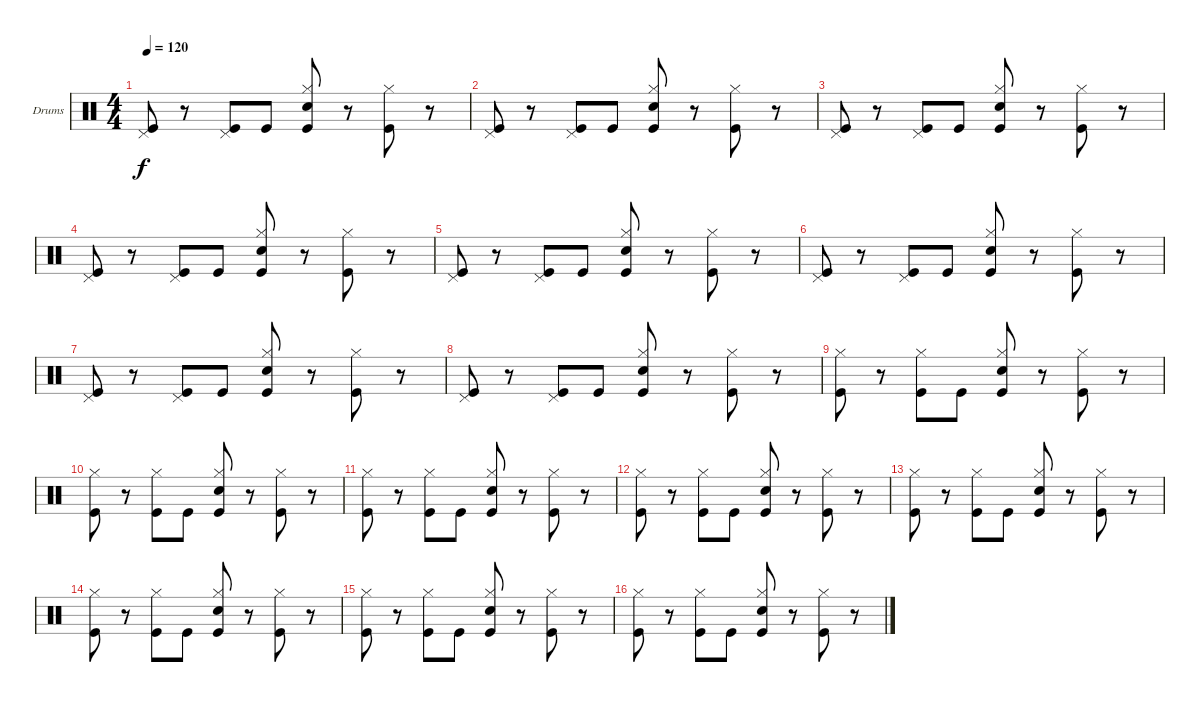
\defaultSystemsLayout 4
\bracketExtendMode groupsimilarinstruments
\firstSystemTrackNameOrientation horizontal
\otherSystemsTrackNameOrientation horizontal
\track ("Drumkit" "Drums") {instrument percussion}
\staff {score}
\articulation defaults
\ts (4 4)
\tempo 120
\clef neutral
\scale
0.333333
\ks c
("Pedal Hi-Hat (hit)" "Kick (hit)").8{dy f} r.8 ("Pedal Hi-Hat (hit)" "Kick (hit)").8 "Kick (hit)".8 ("Hi-Hat (closed)" "Kick (hit)" "Snare (hit) 2").8 r.8 ("Hi-Hat (closed)" "Kick (hit)").8 r.8 |
\scale
0.333333 ("Pedal Hi-Hat (hit)" "Kick (hit)").8 r.8 ("Pedal Hi-Hat (hit)" "Kick (hit)").8 "Kick (hit)".8 ("Hi-Hat (closed)" "Kick (hit)" "Snare (hit) 2").8 r.8 ("Hi-Hat (closed)" "Kick (hit)").8 r.8 |
\scale
0.333333 ("Pedal Hi-Hat (hit)" "Kick (hit)").8 r.8 ("Pedal Hi-Hat (hit)" "Kick (hit)").8 "Kick (hit)".8 ("Hi-Hat (closed)" "Kick (hit)" "Snare (hit) 2").8 r.8 ("Hi-Hat (closed)" "Kick (hit)").8 r.8 |
\scale
0.333333 ("Pedal Hi-Hat (hit)" "Kick (hit)").8 r.8 ("Pedal Hi-Hat (hit)" "Kick (hit)").8 "Kick (hit)".8 ("Hi-Hat (closed)" "Kick (hit)" "Snare (hit) 2").8 r.8 ("Hi-Hat (closed)" "Kick (hit)").8 r.8 |
\scale
0.333333 ("Pedal Hi-Hat (hit)" "Kick (hit)").8 r.8 ("Pedal Hi-Hat (hit)" "Kick (hit)").8 "Kick (hit)".8 ("Hi-Hat (closed)" "Kick (hit)" "Snare (hit) 2").8 r.8 ("Hi-Hat (closed)" "Kick (hit)").8 r.8 |
\scale
0.333333 ("Pedal Hi-Hat (hit)" "Kick (hit)").8 r.8 ("Pedal Hi-Hat (hit)" "Kick (hit)").8 "Kick (hit)".8 ("Hi-Hat (closed)" "Kick (hit)" "Snare (hit) 2").8 r.8 ("Hi-Hat (closed)" "Kick (hit)").8 r.8 |
\scale
0.333333 ("Pedal Hi-Hat (hit)" "Kick (hit)").8 r.8 ("Pedal Hi-Hat (hit)" "Kick (hit)").8 "Kick (hit)".8 ("Hi-Hat (closed)" "Kick (hit)" "Snare (hit) 2").8 r.8 ("Hi-Hat (closed)" "Kick (hit)").8 r.8 |
\scale
0.333333 ("Pedal Hi-Hat (hit)" "Kick (hit)").8 r.8 ("Pedal Hi-Hat (hit)" "Kick (hit)").8 "Kick (hit)".8 ("Hi-Hat (closed)" "Kick (hit)" "Snare (hit) 2").8 r.8 ("Hi-Hat (closed)" "Kick (hit)").8 r.8 |
\scale
0.333333 ("Hi-Hat (closed)" "Kick (hit)").8 r.8 ("Hi-Hat (closed)" "Kick (hit)").8 "Kick (hit)".8 ("Hi-Hat (closed)" "Kick (hit)" "Snare (hit) 2").8 r.8 ("Hi-Hat (closed)" "Kick (hit)").8 r.8 |
\scale
0.333333 ("Hi-Hat (closed)" "Kick (hit)").8 r.8 ("Hi-Hat (closed)" "Kick (hit)").8 "Kick (hit)".8 ("Hi-Hat (closed)" "Kick (hit)" "Snare (hit) 2").8 r.8 ("Hi-Hat (closed)" "Kick (hit)").8 r.8 |
\scale
0.333333 ("Hi-Hat (closed)" "Kick (hit)").8 r.8 ("Hi-Hat (closed)" "Kick (hit)").8 "Kick (hit)".8 ("Hi-Hat (closed)" "Kick (hit)" "Snare (hit) 2").8 r.8 ("Hi-Hat (closed)" "Kick (hit)").8 r.8 |
\scale
0.333333 ("Hi-Hat (closed)" "Kick (hit)").8 r.8 ("Hi-Hat (closed)" "Kick (hit)").8 "Kick (hit)".8 ("Hi-Hat (closed)" "Kick (hit)" "Snare (hit) 2").8 r.8 ("Hi-Hat (closed)" "Kick (hit)").8 r.8 |
\scale
0.333333 ("Hi-Hat (closed)" "Kick (hit)").8 r.8 ("Hi-Hat (closed)" "Kick (hit)").8 "Kick (hit)".8 ("Hi-Hat (closed)" "Kick (hit)" "Snare (hit) 2").8 r.8 ("Hi-Hat (closed)" "Kick (hit)").8 r.8 |
\scale
0.333333 ("Hi-Hat (closed)" "Kick (hit)").8 r.8 ("Hi-Hat (closed)" "Kick (hit)").8 "Kick (hit)".8 ("Hi-Hat (closed)" "Kick (hit)" "Snare (hit) 2").8 r.8 ("Hi-Hat (closed)" "Kick (hit)").8 r.8 |
\scale
0.333333 ("Hi-Hat (closed)" "Kick (hit)").8 r.8 ("Hi-Hat (closed)" "Kick (hit)").8 "Kick (hit)".8 ("Hi-Hat (closed)" "Kick (hit)" "Snare (hit) 2").8 r.8 ("Hi-Hat (closed)" "Kick (hit)").8 r.8 |
\scale
0.333333 ("Hi-Hat (closed)" "Kick (hit)").8 r.8 ("Hi-Hat (closed)" "Kick (hit)").8 "Kick (hit)".8 ("Hi-Hat (closed)" "Kick (hit)" "Snare (hit) 2").8 r.8 ("Hi-Hat (closed)" "Kick (hit)").8 r.8
